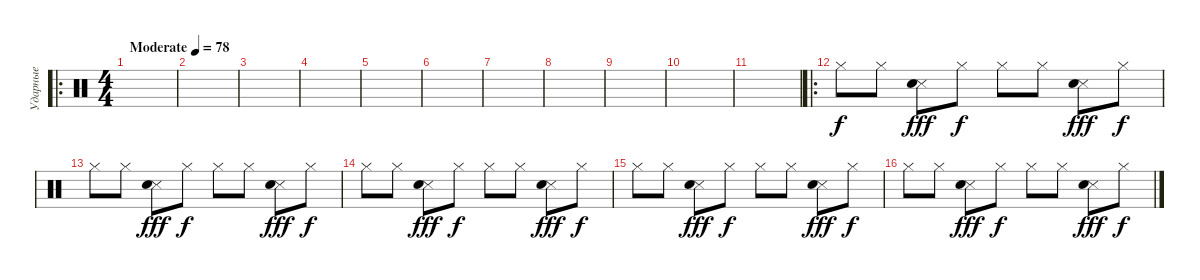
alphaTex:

\track ("Ударные" "Ударные") {instrument percussion}
\staff {score}
\articulation defaults
\ro
\ts (4 4)
\tempo (78 "Moderate")
\clef neutral
\ks c
|
|
|
|
|
|
|
|
|
|
|
\ro "Hi-Hat (closed)".8 "Hi-Hat (closed)".8
("Snare (side stick) 3" "Electric Snare (hit)").8{dy fff} "Hi-Hat (closed)".8{dy f} "Hi-Hat (closed)".8 "Hi-Hat (closed)".8 ("Snare (side stick) 3" "Electric Snare (hit)").8{dy fff} "Hi-Hat (closed)".8{dy f} |
"Hi-Hat (closed)".8 "Hi-Hat (closed)".8 ("Snare (side stick) 3" "Electric Snare (hit)").8{dy fff} "Hi-Hat (closed)".8{dy f} "Hi-Hat (closed)".8 "Hi-Hat (closed)".8 ("Snare (side stick) 3" "Electric Snare (hit)").8{dy fff} "Hi-Hat (closed)".8{dy f} |
"Hi-Hat (closed)".8 "Hi-Hat (closed)".8 ("Snare (side stick) 3" "Electric Snare (hit)").8{dy fff} "Hi-Hat (closed)".8{dy f} "Hi-Hat (closed)".8 "Hi-Hat (closed)".8 ("Snare (side stick) 3" "Electric Snare (hit)").8{dy fff} "Hi-Hat (closed)".8{dy f} |
"Hi-Hat (closed)".8 "Hi-Hat (closed)".8 ("Snare (side stick) 3" "Electric Snare (hit)").8{dy fff} "Hi-Hat (closed)".8{dy f} "Hi-Hat (closed)".8 "Hi-Hat (closed)".8 ("Snare (side stick) 3" "Electric Snare (hit)").8{dy fff} "Hi-Hat (closed)".8{dy f} |
"Hi-Hat (closed)".8 "Hi-Hat (closed)".8 ("Snare (side stick) 3" "Electric Snare (hit)").8{dy fff} "Hi-Hat (closed)".8{dy f} "Hi-Hat (closed)".8 "Hi-Hat (closed)".8 ("Snare (side stick) 3" "Electric Snare (hit)").8{dy fff} "Hi-Hat (closed)".8{dy f}
